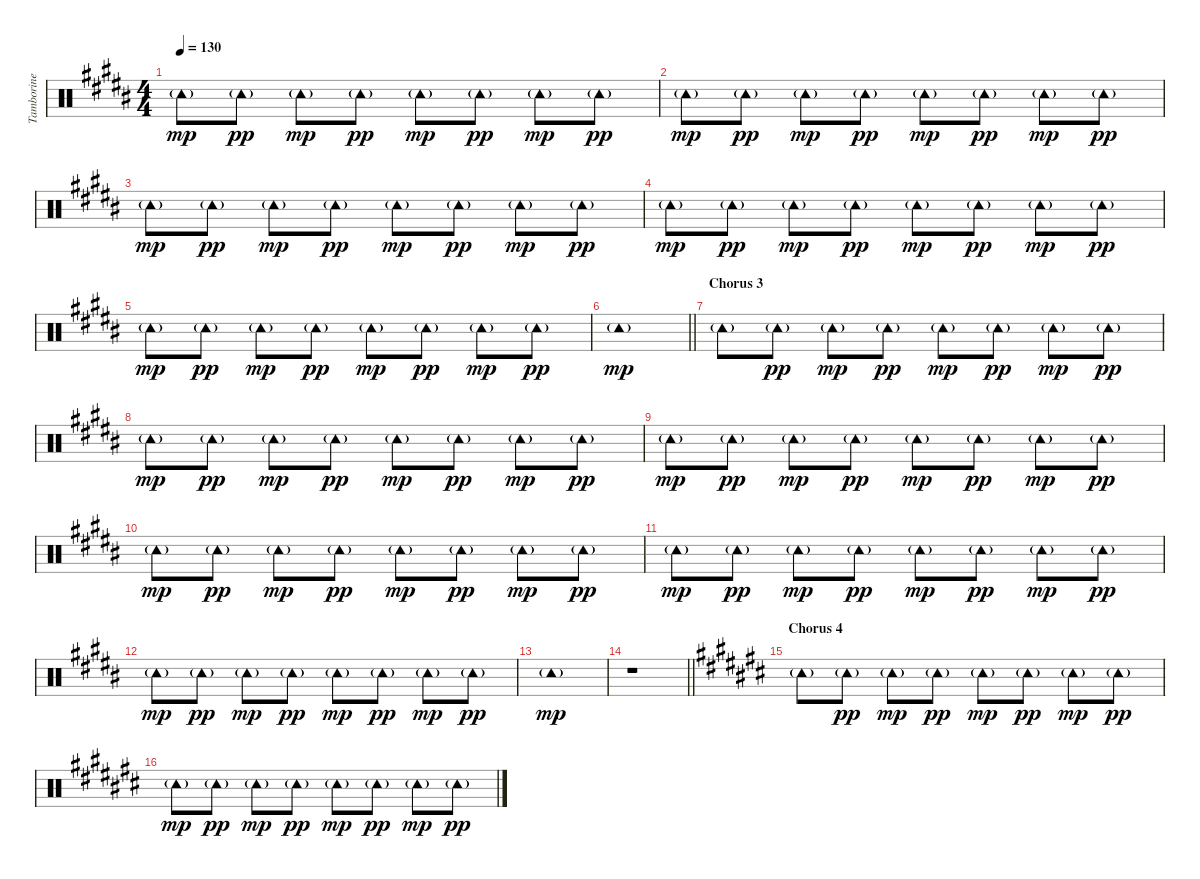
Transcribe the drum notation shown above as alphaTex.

\track ("Tamborine" "Tamborine") {instrument percussion}
\staff {score}
\articulation defaults
\ts (4 4)
\tempo 130
\clef neutral
\ks b "Tambourine (hit)"{g}.8{dy mp} "Tambourine (hit)"{g}.8{dy pp} "Tambourine (hit)"{g}.8{dy mp} "Tambourine (hit)"{g}.8{dy pp} "Tambourine (hit)"{g}.8{dy mp} "Tambourine (hit)"{g}.8{dy pp} "Tambourine (hit)"{g}.8{dy mp} "Tambourine (hit)"{g}.8{dy pp}
|
"Tambourine (hit)"{g}.8{dy mp} "Tambourine (hit)"{g}.8{dy pp} "Tambourine (hit)"{g}.8{dy mp} "Tambourine (hit)"{g}.8{dy pp} "Tambourine (hit)"{g}.8{dy mp} "Tambourine (hit)"{g}.8{dy pp} "Tambourine (hit)"{g}.8{dy mp} "Tambourine (hit)"{g}.8{dy pp} |
"Tambourine (hit)"{g}.8{dy mp} "Tambourine (hit)"{g}.8{dy pp} "Tambourine (hit)"{g}.8{dy mp} "Tambourine (hit)"{g}.8{dy pp} "Tambourine (hit)"{g}.8{dy mp} "Tambourine (hit)"{g}.8{dy pp} "Tambourine (hit)"{g}.8{dy mp} "Tambourine (hit)"{g}.8{dy pp} |
"Tambourine (hit)"{g}.8{dy mp} "Tambourine (hit)"{g}.8{dy pp} "Tambourine (hit)"{g}.8{dy mp} "Tambourine (hit)"{g}.8{dy pp} "Tambourine (hit)"{g}.8{dy mp} "Tambourine (hit)"{g}.8{dy pp} "Tambourine (hit)"{g}.8{dy mp} "Tambourine (hit)"{g}.8{dy pp} |
"Tambourine (hit)"{g}.8{dy mp} "Tambourine (hit)"{g}.8{dy pp} "Tambourine (hit)"{g}.8{dy mp} "Tambourine (hit)"{g}.8{dy pp} "Tambourine (hit)"{g}.8{dy mp} "Tambourine (hit)"{g}.8{dy pp} "Tambourine (hit)"{g}.8{dy mp} "Tambourine (hit)"{g}.8{dy pp} |
\barLineRight lightlight "Tambourine (hit)"{g}.1{dy mp}
|
\section ("" "Chorus 3")
"Tambourine (hit)"{g}.8 "Tambourine (hit)"{g}.8{dy pp} "Tambourine (hit)"{g}.8{dy mp} "Tambourine (hit)"{g}.8{dy pp} "Tambourine (hit)"{g}.8{dy mp} "Tambourine (hit)"{g}.8{dy pp} "Tambourine (hit)"{g}.8{dy mp} "Tambourine (hit)"{g}.8{dy pp} |
"Tambourine (hit)"{g}.8{dy mp} "Tambourine (hit)"{g}.8{dy pp} "Tambourine (hit)"{g}.8{dy mp} "Tambourine (hit)"{g}.8{dy pp} "Tambourine (hit)"{g}.8{dy mp} "Tambourine (hit)"{g}.8{dy pp} "Tambourine (hit)"{g}.8{dy mp} "Tambourine (hit)"{g}.8{dy pp} |
"Tambourine (hit)"{g}.8{dy mp} "Tambourine (hit)"{g}.8{dy pp} "Tambourine (hit)"{g}.8{dy mp} "Tambourine (hit)"{g}.8{dy pp} "Tambourine (hit)"{g}.8{dy mp} "Tambourine (hit)"{g}.8{dy pp} "Tambourine (hit)"{g}.8{dy mp} "Tambourine (hit)"{g}.8{dy pp} |
"Tambourine (hit)"{g}.8{dy mp} "Tambourine (hit)"{g}.8{dy pp} "Tambourine (hit)"{g}.8{dy mp} "Tambourine (hit)"{g}.8{dy pp} "Tambourine (hit)"{g}.8{dy mp} "Tambourine (hit)"{g}.8{dy pp} "Tambourine (hit)"{g}.8{dy mp} "Tambourine (hit)"{g}.8{dy pp} |
"Tambourine (hit)"{g}.8{dy mp} "Tambourine (hit)"{g}.8{dy pp} "Tambourine (hit)"{g}.8{dy mp} "Tambourine (hit)"{g}.8{dy pp} "Tambourine (hit)"{g}.8{dy mp} "Tambourine (hit)"{g}.8{dy pp} "Tambourine (hit)"{g}.8{dy mp} "Tambourine (hit)"{g}.8{dy pp} |
"Tambourine (hit)"{g}.8{dy mp} "Tambourine (hit)"{g}.8{dy pp} "Tambourine (hit)"{g}.8{dy mp} "Tambourine (hit)"{g}.8{dy pp} "Tambourine (hit)"{g}.8{dy mp} "Tambourine (hit)"{g}.8{dy pp} "Tambourine (hit)"{g}.8{dy mp} "Tambourine (hit)"{g}.8{dy pp} |
"Tambourine (hit)"{g}.1{dy mp} |
\barLineRight lightlight
r.1 |
\section ("" "Chorus 4")
\ks c# "Tambourine (hit)"{g}.8 "Tambourine (hit)"{g}.8{dy pp} "Tambourine (hit)"{g}.8{dy mp} "Tambourine (hit)"{g}.8{dy pp} "Tambourine (hit)"{g}.8{dy mp} "Tambourine (hit)"{g}.8{dy pp} "Tambourine (hit)"{g}.8{dy mp} "Tambourine (hit)"{g}.8{dy pp}
|
"Tambourine (hit)"{g}.8{dy mp} "Tambourine (hit)"{g}.8{dy pp} "Tambourine (hit)"{g}.8{dy mp} "Tambourine (hit)"{g}.8{dy pp} "Tambourine (hit)"{g}.8{dy mp} "Tambourine (hit)"{g}.8{dy pp} "Tambourine (hit)"{g}.8{dy mp} "Tambourine (hit)"{g}.8{dy pp}
